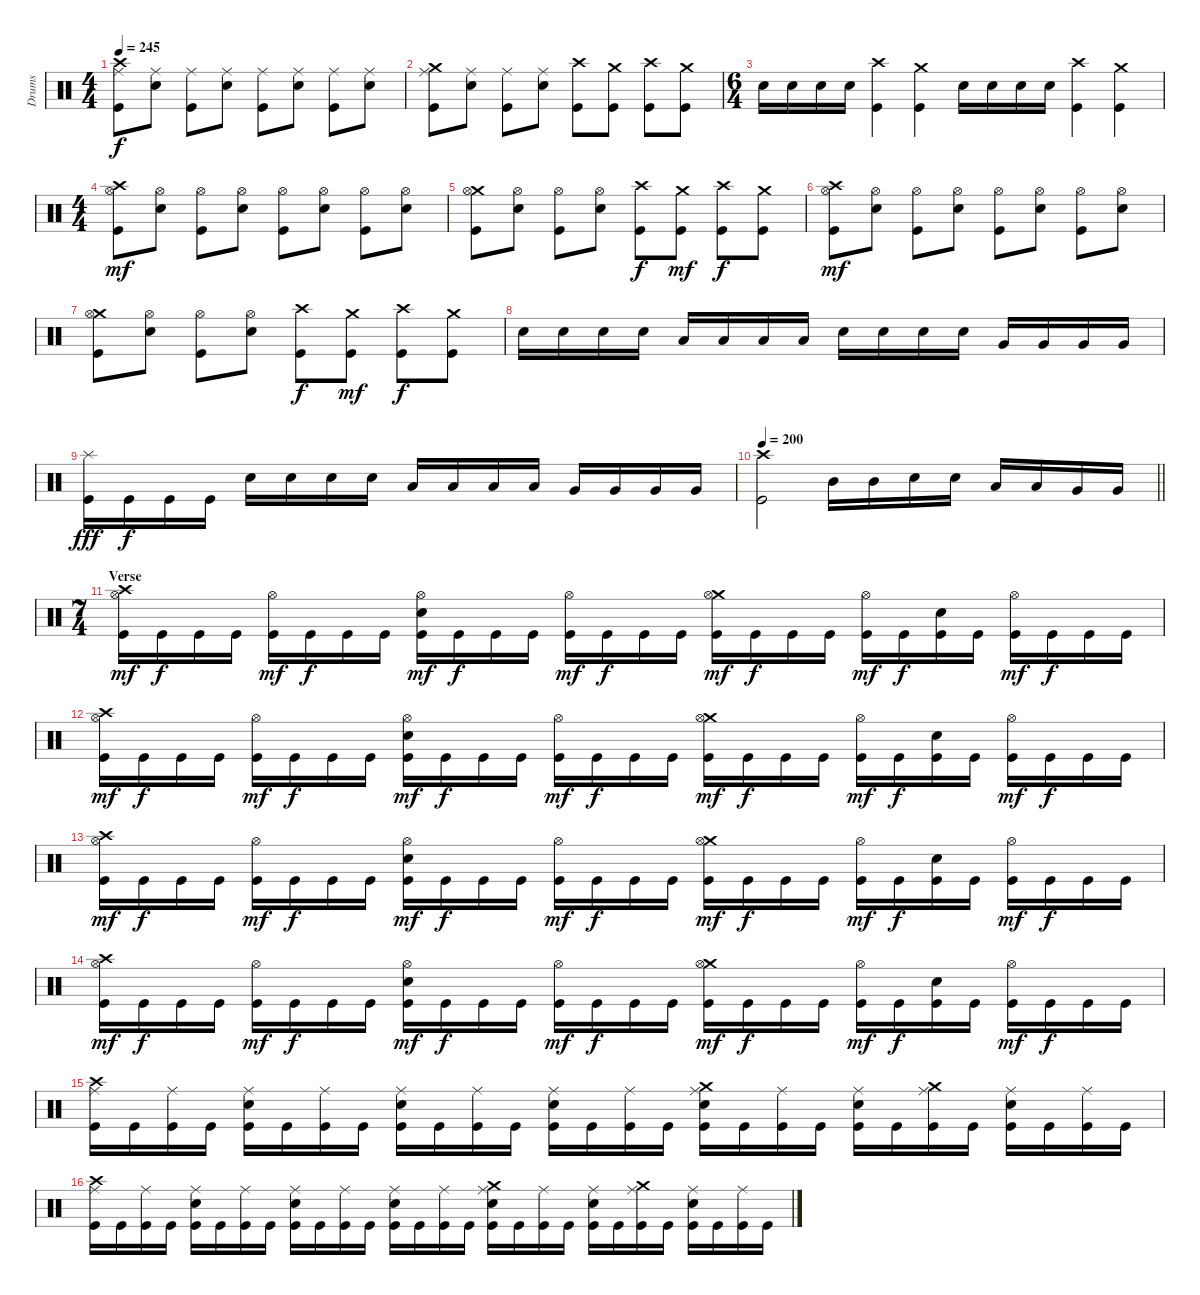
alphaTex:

\track ("Drums" "Drums") {instrument percussion}
\staff {score}
\articulation defaults
\ts (4 4)
\tempo 245
\clef neutral
\ks c
("Crash high (hit)" "Ride (middle)" "Kick (hit)").8{dy f} ("Ride (middle)" "Electric Snare (hit)").8 ("Ride (middle)" "Kick (hit)").8 ("Ride (middle)" "Electric Snare (hit)").8 ("Ride (middle)" "Kick (hit)").8 ("Ride (middle)" "Electric Snare (hit)").8 ("Ride (middle)" "Kick (hit)").8 ("Ride (middle)" "Electric Snare (hit)").8 |
("Crash medium (hit)" "Ride (middle)" "Kick (hit)").8 ("Ride (middle)" "Electric Snare (hit)").8 ("Ride (middle)" "Kick (hit)").8 ("Ride (middle)" "Electric Snare (hit)").8 ("Crash high (hit)" "Kick (hit)").8 ("Crash medium (hit)" "Kick (hit)").8 ("Crash high (hit)" "Kick (hit)").8 ("Crash medium (hit)" "Kick (hit)").8 |
\ts (6 4)
"Electric Snare (hit)".16 "Electric Snare (hit)".16 "Electric Snare (hit)".16 "Electric Snare (hit)".16 ("Crash high (hit)" "Kick (hit)").4 ("Crash medium (hit)" "Kick (hit)").4 "Electric Snare (hit)".16 "Electric Snare (hit)".16 "Electric Snare (hit)".16 "Electric Snare (hit)".16 ("Crash high (hit)" "Kick (hit)").4 ("Crash medium (hit)" "Kick (hit)").4 |
\ts (4 4)
("Crash high (hit)" "Hi-Hat (open)" "Kick (hit)").8{dy mf} ("Hi-Hat (open)" "Electric Snare (hit)").8 ("Hi-Hat (open)" "Kick (hit)").8 ("Hi-Hat (open)" "Electric Snare (hit)").8 ("Hi-Hat (open)" "Kick (hit)").8 ("Hi-Hat (open)" "Electric Snare (hit)").8 ("Hi-Hat (open)" "Kick (hit)").8 ("Hi-Hat (open)" "Electric Snare (hit)").8 |
("Crash medium (hit)" "Hi-Hat (open)" "Kick (hit)").8 ("Hi-Hat (open)" "Electric Snare (hit)").8 ("Hi-Hat (open)" "Kick (hit)").8 ("Hi-Hat (open)" "Electric Snare (hit)").8 ("Crash high (hit)" "Kick (hit)").8{dy f} ("Crash medium (hit)" "Kick (hit)").8{dy mf} ("Crash high (hit)" "Kick (hit)").8{dy f} ("Crash medium (hit)" "Kick (hit)").8 |
("Crash high (hit)" "Hi-Hat (open)" "Kick (hit)").8{dy mf} ("Hi-Hat (open)" "Electric Snare (hit)").8 ("Hi-Hat (open)" "Kick (hit)").8 ("Hi-Hat (open)" "Electric Snare (hit)").8 ("Hi-Hat (open)" "Kick (hit)").8 ("Hi-Hat (open)" "Electric Snare (hit)").8 ("Hi-Hat (open)" "Kick (hit)").8 ("Hi-Hat (open)" "Electric Snare (hit)").8 |
("Crash medium (hit)" "Hi-Hat (open)" "Kick (hit)").8 ("Hi-Hat (open)" "Electric Snare (hit)").8 ("Hi-Hat (open)" "Kick (hit)").8 ("Hi-Hat (open)" "Electric Snare (hit)").8 ("Crash high (hit)" "Kick (hit)").8{dy f} ("Crash medium (hit)" "Kick (hit)").8{dy mf} ("Crash high (hit)" "Kick (hit)").8{dy f} ("Crash medium (hit)" "Kick (hit)").8 |
"Electric Snare (hit)".16 "Electric Snare (hit)".16 "Electric Snare (hit)".16 "Electric Snare (hit)".16 "Low Tom (hit)".16 "Low Tom (hit)".16 "Low Tom (hit)".16 "Low Tom (hit)".16 "Electric Snare (hit)".16 "Electric Snare (hit)".16 "Electric Snare (hit)".16 "Electric Snare (hit)".16 "Very Low Tom (hit)".16 "Very Low Tom (hit)".16 "Very Low Tom (hit)".16 "Very Low Tom (hit)".16 |
("Splash (hit)" "Kick (hit)").16{dy fff} "Kick (hit)".16{dy f} "Kick (hit)".16 "Kick (hit)".16 "Electric Snare (hit)".16 "Electric Snare (hit)".16 "Electric Snare (hit)".16 "Electric Snare (hit)".16 "Low Tom (hit)".16 "Low Tom (hit)".16 "Low Tom (hit)".16 "Low Tom (hit)".16 "Very Low Tom (hit)".16 "Very Low Tom (hit)".16 "Very Low Tom (hit)".16 "Very Low Tom (hit)".16 |
\tempo 200
\barLineRight lightlight
("Crash high (hit)" "Kick (hit)").2 "Mid Tom (hit)".16 "Mid Tom (hit)".16 "Electric Snare (hit)".16 "Electric Snare (hit)".16 "Low Tom (hit)".16 "Low Tom (hit)".16 "Very Low Tom (hit)".16 "Very Low Tom (hit)".16 |
\ts (7 4)
\section ("" "Verse")
("Crash high (hit)" "Hi-Hat (open)" "Kick (hit)").16{dy mf} "Kick (hit)".16{dy f} "Kick (hit)".16 "Kick (hit)".16 ("Hi-Hat (open)" "Kick (hit)").16{dy mf} "Kick (hit)".16{dy f} "Kick (hit)".16 "Kick (hit)".16 ("Hi-Hat (open)" "Electric Snare (hit)" "Kick (hit)").16{dy mf} "Kick (hit)".16{dy f} "Kick (hit)".16 "Kick (hit)".16 ("Hi-Hat (open)" "Kick (hit)").16{dy mf} "Kick (hit)".16{dy f} "Kick (hit)".16 "Kick (hit)".16 ("Crash medium (hit)" "Hi-Hat (open)" "Kick (hit)").16{dy mf} "Kick (hit)".16{dy f} "Kick (hit)".16 "Kick (hit)".16 ("Hi-Hat (open)" "Kick (hit)").16{dy mf} "Kick (hit)".16{dy f} ("Electric Snare (hit)" "Kick (hit)").16 "Kick (hit)".16 ("Hi-Hat (open)" "Kick (hit)").16{dy mf} "Kick (hit)".16{dy f} "Kick (hit)".16 "Kick (hit)".16 |
("Crash high (hit)" "Hi-Hat (open)" "Kick (hit)").16{dy mf} "Kick (hit)".16{dy f} "Kick (hit)".16 "Kick (hit)".16 ("Hi-Hat (open)" "Kick (hit)").16{dy mf} "Kick (hit)".16{dy f} "Kick (hit)".16 "Kick (hit)".16 ("Hi-Hat (open)" "Electric Snare (hit)" "Kick (hit)").16{dy mf} "Kick (hit)".16{dy f} "Kick (hit)".16 "Kick (hit)".16 ("Hi-Hat (open)" "Kick (hit)").16{dy mf} "Kick (hit)".16{dy f} "Kick (hit)".16 "Kick (hit)".16 ("Crash medium (hit)" "Hi-Hat (open)" "Kick (hit)").16{dy mf} "Kick (hit)".16{dy f} "Kick (hit)".16 "Kick (hit)".16 ("Hi-Hat (open)" "Kick (hit)").16{dy mf} "Kick (hit)".16{dy f} ("Electric Snare (hit)" "Kick (hit)").16 "Kick (hit)".16 ("Hi-Hat (open)" "Kick (hit)").16{dy mf} "Kick (hit)".16{dy f} "Kick (hit)".16 "Kick (hit)".16 |
("Crash high (hit)" "Hi-Hat (open)" "Kick (hit)").16{dy mf} "Kick (hit)".16{dy f} "Kick (hit)".16 "Kick (hit)".16 ("Hi-Hat (open)" "Kick (hit)").16{dy mf} "Kick (hit)".16{dy f} "Kick (hit)".16 "Kick (hit)".16 ("Hi-Hat (open)" "Electric Snare (hit)" "Kick (hit)").16{dy mf} "Kick (hit)".16{dy f} "Kick (hit)".16 "Kick (hit)".16 ("Hi-Hat (open)" "Kick (hit)").16{dy mf} "Kick (hit)".16{dy f} "Kick (hit)".16 "Kick (hit)".16 ("Crash medium (hit)" "Hi-Hat (open)" "Kick (hit)").16{dy mf} "Kick (hit)".16{dy f} "Kick (hit)".16 "Kick (hit)".16 ("Hi-Hat (open)" "Kick (hit)").16{dy mf} "Kick (hit)".16{dy f} ("Electric Snare (hit)" "Kick (hit)").16 "Kick (hit)".16 ("Hi-Hat (open)" "Kick (hit)").16{dy mf} "Kick (hit)".16{dy f} "Kick (hit)".16 "Kick (hit)".16 |
("Crash high (hit)" "Hi-Hat (open)" "Kick (hit)").16{dy mf} "Kick (hit)".16{dy f} "Kick (hit)".16 "Kick (hit)".16 ("Hi-Hat (open)" "Kick (hit)").16{dy mf} "Kick (hit)".16{dy f} "Kick (hit)".16 "Kick (hit)".16 ("Hi-Hat (open)" "Electric Snare (hit)" "Kick (hit)").16{dy mf} "Kick (hit)".16{dy f} "Kick (hit)".16 "Kick (hit)".16 ("Hi-Hat (open)" "Kick (hit)").16{dy mf} "Kick (hit)".16{dy f} "Kick (hit)".16 "Kick (hit)".16 ("Crash medium (hit)" "Hi-Hat (open)" "Kick (hit)").16{dy mf} "Kick (hit)".16{dy f} "Kick (hit)".16 "Kick (hit)".16 ("Hi-Hat (open)" "Kick (hit)").16{dy mf} "Kick (hit)".16{dy f} ("Electric Snare (hit)" "Kick (hit)").16 "Kick (hit)".16 ("Hi-Hat (open)" "Kick (hit)").16{dy mf} "Kick (hit)".16{dy f} "Kick (hit)".16 "Kick (hit)".16 |
("Crash high (hit)" "Ride (middle)" "Kick (hit)").16 "Kick (hit)".16 ("Ride (middle)" "Kick (hit)").16 "Kick (hit)".16 ("Ride (middle)" "Electric Snare (hit)" "Kick (hit)").16 "Kick (hit)".16 ("Ride (middle)" "Kick (hit)").16 "Kick (hit)".16 ("Ride (middle)" "Electric Snare (hit)" "Kick (hit)").16 "Kick (hit)".16 ("Ride (middle)" "Kick (hit)").16 "Kick (hit)".16 ("Ride (middle)" "Electric Snare (hit)" "Kick (hit)").16 "Kick (hit)".16 ("Ride (middle)" "Kick (hit)").16 "Kick (hit)".16 ("Crash medium (hit)" "Ride (middle)" "Electric Snare (hit)" "Kick (hit)").16 "Kick (hit)".16 ("Ride (middle)" "Kick (hit)").16 "Kick (hit)".16 ("Ride (middle)" "Electric Snare (hit)" "Kick (hit)").16 "Kick (hit)".16 ("Crash medium (hit)" "Ride (middle)" "Kick (hit)").16 "Kick (hit)".16 ("Ride (middle)" "Electric Snare (hit)" "Kick (hit)").16 "Kick (hit)".16 ("Ride (middle)" "Kick (hit)").16 "Kick (hit)".16 |
("Crash high (hit)" "Ride (middle)" "Kick (hit)").16 "Kick (hit)".16 ("Ride (middle)" "Kick (hit)").16 "Kick (hit)".16 ("Ride (middle)" "Electric Snare (hit)" "Kick (hit)").16 "Kick (hit)".16 ("Ride (middle)" "Kick (hit)").16 "Kick (hit)".16 ("Ride (middle)" "Electric Snare (hit)" "Kick (hit)").16 "Kick (hit)".16 ("Ride (middle)" "Kick (hit)").16 "Kick (hit)".16 ("Ride (middle)" "Electric Snare (hit)" "Kick (hit)").16 "Kick (hit)".16 ("Ride (middle)" "Kick (hit)").16 "Kick (hit)".16 ("Crash medium (hit)" "Ride (middle)" "Electric Snare (hit)" "Kick (hit)").16 "Kick (hit)".16 ("Ride (middle)" "Kick (hit)").16 "Kick (hit)".16 ("Ride (middle)" "Electric Snare (hit)" "Kick (hit)").16 "Kick (hit)".16 ("Crash medium (hit)" "Ride (middle)" "Kick (hit)").16 "Kick (hit)".16 ("Ride (middle)" "Electric Snare (hit)" "Kick (hit)").16 "Kick (hit)".16 ("Ride (middle)" "Kick (hit)").16 "Kick (hit)".16
